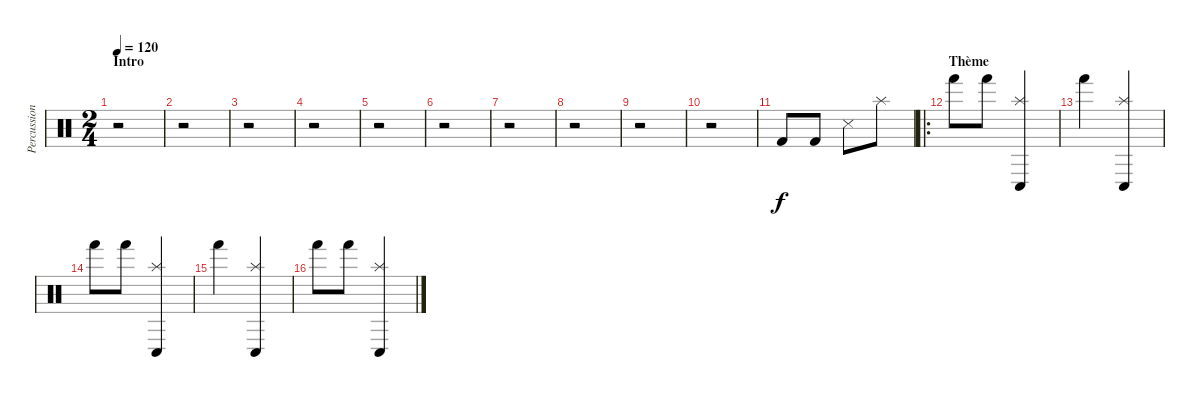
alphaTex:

\track ("Percussions" "Percussion") {instrument percussion}
\staff {score}
\articulation defaults
\ts (2 4)
\section ("" "Intro")
\tempo 120
\clef neutral
\ks c
r.2{dy f} |
r.2 |
r.2 |
r.2 |
r.2 |
r.2 |
r.2 |
r.2 |
r.2 |
r.2 |
"Kick (hit) 2".8 "Kick (hit) 2".8 "Snare (side stick) 3".8 "Splash (hit)".8 |
\ro
\section ("" "Thème")
"Hand (hit)".8 "Hand (hit)".8 ("Conga low (hit)" "Splash (hit)").4 |
"Hand (hit)".4 ("Conga low (hit)" "Splash (hit)").4 |
"Hand (hit)".8 "Hand (hit)".8 ("Conga low (hit)" "Splash (hit)").4 |
"Hand (hit)".4 ("Conga low (hit)" "Splash (hit)").4 |
"Hand (hit)".8 "Hand (hit)".8 ("Conga low (hit)" "Splash (hit)").4
